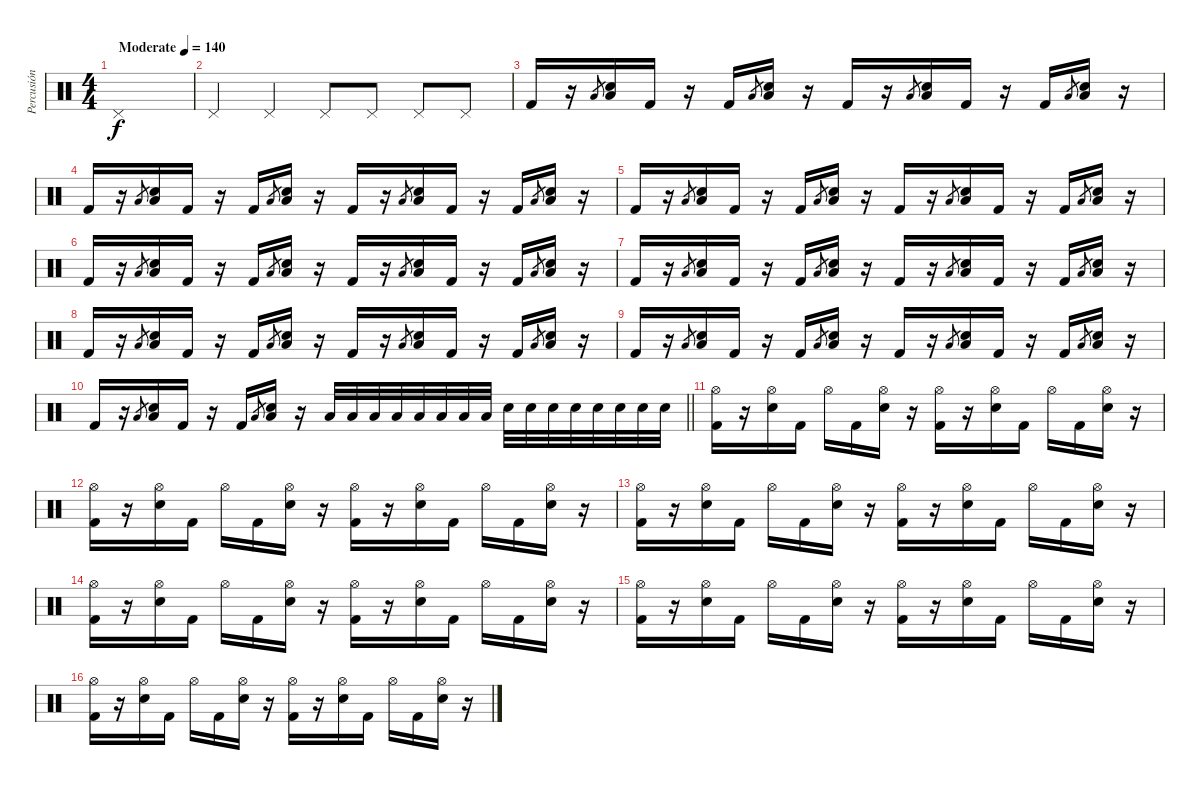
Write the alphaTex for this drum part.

\track ("Percusión" "Percusión") {instrument percussion}
\staff {score}
\articulation defaults
\ts (4 4)
\tempo (140 "Moderate")
\clef neutral
\ks c "Pedal Hi-Hat (hit)".1{dy f}
|
"Pedal Hi-Hat (hit)".4 "Pedal Hi-Hat (hit)".4 "Pedal Hi-Hat (hit)".8 "Pedal Hi-Hat (hit)".8 "Pedal Hi-Hat (hit)".8 "Pedal Hi-Hat (hit)".8 |
"Kick (hit) 2".16 r.16 "Low Tom (hit)".8{gr} ("Low Tom (hit)" "Electric Snare (hit)").16 "Kick (hit) 2".16 r.16 "Kick (hit) 2".16 "Low Tom (hit)".8{gr} ("Low Tom (hit)" "Electric Snare (hit)").16 r.16 "Kick (hit) 2".16 r.16 "Low Tom (hit)".8{gr} ("Low Tom (hit)" "Electric Snare (hit)").16 "Kick (hit) 2".16 r.16 "Kick (hit) 2".16 "Low Tom (hit)".8{gr} ("Low Tom (hit)" "Electric Snare (hit)").16 r.16 |
"Kick (hit) 2".16 r.16 "Low Tom (hit)".8{gr} ("Low Tom (hit)" "Electric Snare (hit)").16 "Kick (hit) 2".16 r.16 "Kick (hit) 2".16 "Low Tom (hit)".8{gr} ("Low Tom (hit)" "Electric Snare (hit)").16 r.16 "Kick (hit) 2".16 r.16 "Low Tom (hit)".8{gr} ("Low Tom (hit)" "Electric Snare (hit)").16 "Kick (hit) 2".16 r.16 "Kick (hit) 2".16 "Low Tom (hit)".8{gr} ("Low Tom (hit)" "Electric Snare (hit)").16 r.16 |
"Kick (hit) 2".16 r.16 "Low Tom (hit)".8{gr} ("Low Tom (hit)" "Electric Snare (hit)").16 "Kick (hit) 2".16 r.16 "Kick (hit) 2".16 "Low Tom (hit)".8{gr} ("Low Tom (hit)" "Electric Snare (hit)").16 r.16 "Kick (hit) 2".16 r.16 "Low Tom (hit)".8{gr} ("Low Tom (hit)" "Electric Snare (hit)").16 "Kick (hit) 2".16 r.16 "Kick (hit) 2".16 "Low Tom (hit)".8{gr} ("Low Tom (hit)" "Electric Snare (hit)").16 r.16 |
"Kick (hit) 2".16 r.16 "Low Tom (hit)".8{gr} ("Low Tom (hit)" "Electric Snare (hit)").16 "Kick (hit) 2".16 r.16 "Kick (hit) 2".16 "Low Tom (hit)".8{gr} ("Low Tom (hit)" "Electric Snare (hit)").16 r.16 "Kick (hit) 2".16 r.16 "Low Tom (hit)".8{gr} ("Low Tom (hit)" "Electric Snare (hit)").16 "Kick (hit) 2".16 r.16 "Kick (hit) 2".16 "Low Tom (hit)".8{gr} ("Low Tom (hit)" "Electric Snare (hit)").16 r.16 |
"Kick (hit) 2".16 r.16 "Low Tom (hit)".8{gr} ("Low Tom (hit)" "Electric Snare (hit)").16 "Kick (hit) 2".16 r.16 "Kick (hit) 2".16 "Low Tom (hit)".8{gr} ("Low Tom (hit)" "Electric Snare (hit)").16 r.16 "Kick (hit) 2".16 r.16 "Low Tom (hit)".8{gr} ("Low Tom (hit)" "Electric Snare (hit)").16 "Kick (hit) 2".16 r.16 "Kick (hit) 2".16 "Low Tom (hit)".8{gr} ("Low Tom (hit)" "Electric Snare (hit)").16 r.16 |
"Kick (hit) 2".16 r.16 "Low Tom (hit)".8{gr} ("Low Tom (hit)" "Electric Snare (hit)").16 "Kick (hit) 2".16 r.16 "Kick (hit) 2".16 "Low Tom (hit)".8{gr} ("Low Tom (hit)" "Electric Snare (hit)").16 r.16 "Kick (hit) 2".16 r.16 "Low Tom (hit)".8{gr} ("Low Tom (hit)" "Electric Snare (hit)").16 "Kick (hit) 2".16 r.16 "Kick (hit) 2".16 "Low Tom (hit)".8{gr} ("Low Tom (hit)" "Electric Snare (hit)").16 r.16 |
"Kick (hit) 2".16 r.16 "Low Tom (hit)".8{gr} ("Low Tom (hit)" "Electric Snare (hit)").16 "Kick (hit) 2".16 r.16 "Kick (hit) 2".16 "Low Tom (hit)".8{gr} ("Low Tom (hit)" "Electric Snare (hit)").16 r.16 "Kick (hit) 2".16 r.16 "Low Tom (hit)".8{gr} ("Low Tom (hit)" "Electric Snare (hit)").16 "Kick (hit) 2".16 r.16 "Kick (hit) 2".16 "Low Tom (hit)".8{gr} ("Low Tom (hit)" "Electric Snare (hit)").16 r.16 |
\barLineRight lightlight "Kick (hit) 2".16
r.16 "Low Tom (hit)".8{gr} ("Low Tom (hit)" "Electric Snare (hit)").16 "Kick (hit) 2".16 r.16 "Kick (hit) 2".16 "Low Tom (hit)".8{gr} ("Low Tom (hit)" "Electric Snare (hit)").16 r.16 "Low Tom (hit)".32 "Low Tom (hit)".32 "Low Tom (hit)".32 "Low Tom (hit)".32 "Low Tom (hit)".32 "Low Tom (hit)".32 "Low Tom (hit)".32 "Low Tom (hit)".32 "Electric Snare (hit)".32 "Electric Snare (hit)".32 "Electric Snare (hit)".32 "Electric Snare (hit)".32 "Electric Snare (hit)".32 "Electric Snare (hit)".32 "Electric Snare (hit)".32 "Electric Snare (hit)".32 |
("Hi-Hat (open)" "Kick (hit) 2").16 r.16 ("Hi-Hat (open)" "Electric Snare (hit)").16 "Kick (hit) 2".16 "Hi-Hat (open)".16 "Kick (hit) 2".16 ("Hi-Hat (open)" "Electric Snare (hit)").16 r.16 ("Hi-Hat (open)" "Kick (hit) 2").16 r.16 ("Hi-Hat (open)" "Electric Snare (hit)").16 "Kick (hit) 2".16 "Hi-Hat (open)".16 "Kick (hit) 2".16 ("Hi-Hat (open)" "Electric Snare (hit)").16 r.16 |
("Hi-Hat (open)" "Kick (hit) 2").16 r.16 ("Hi-Hat (open)" "Electric Snare (hit)").16 "Kick (hit) 2".16 "Hi-Hat (open)".16 "Kick (hit) 2".16 ("Hi-Hat (open)" "Electric Snare (hit)").16 r.16 ("Hi-Hat (open)" "Kick (hit) 2").16 r.16 ("Hi-Hat (open)" "Electric Snare (hit)").16 "Kick (hit) 2".16 "Hi-Hat (open)".16 "Kick (hit) 2".16 ("Hi-Hat (open)" "Electric Snare (hit)").16 r.16 |
("Hi-Hat (open)" "Kick (hit) 2").16 r.16 ("Hi-Hat (open)" "Electric Snare (hit)").16 "Kick (hit) 2".16 "Hi-Hat (open)".16 "Kick (hit) 2".16 ("Hi-Hat (open)" "Electric Snare (hit)").16 r.16 ("Hi-Hat (open)" "Kick (hit) 2").16 r.16 ("Hi-Hat (open)" "Electric Snare (hit)").16 "Kick (hit) 2".16 "Hi-Hat (open)".16 "Kick (hit) 2".16 ("Hi-Hat (open)" "Electric Snare (hit)").16 r.16 |
("Hi-Hat (open)" "Kick (hit) 2").16 r.16 ("Hi-Hat (open)" "Electric Snare (hit)").16 "Kick (hit) 2".16 "Hi-Hat (open)".16 "Kick (hit) 2".16 ("Hi-Hat (open)" "Electric Snare (hit)").16 r.16 ("Hi-Hat (open)" "Kick (hit) 2").16 r.16 ("Hi-Hat (open)" "Electric Snare (hit)").16 "Kick (hit) 2".16 "Hi-Hat (open)".16 "Kick (hit) 2".16 ("Hi-Hat (open)" "Electric Snare (hit)").16 r.16 |
("Hi-Hat (open)" "Kick (hit) 2").16 r.16 ("Hi-Hat (open)" "Electric Snare (hit)").16 "Kick (hit) 2".16 "Hi-Hat (open)".16 "Kick (hit) 2".16 ("Hi-Hat (open)" "Electric Snare (hit)").16 r.16 ("Hi-Hat (open)" "Kick (hit) 2").16 r.16 ("Hi-Hat (open)" "Electric Snare (hit)").16 "Kick (hit) 2".16 "Hi-Hat (open)".16 "Kick (hit) 2".16 ("Hi-Hat (open)" "Electric Snare (hit)").16 r.16 |
("Hi-Hat (open)" "Kick (hit) 2").16 r.16 ("Hi-Hat (open)" "Electric Snare (hit)").16 "Kick (hit) 2".16 "Hi-Hat (open)".16 "Kick (hit) 2".16 ("Hi-Hat (open)" "Electric Snare (hit)").16 r.16 ("Hi-Hat (open)" "Kick (hit) 2").16 r.16 ("Hi-Hat (open)" "Electric Snare (hit)").16 "Kick (hit) 2".16 "Hi-Hat (open)".16 "Kick (hit) 2".16 ("Hi-Hat (open)" "Electric Snare (hit)").16 r.16
